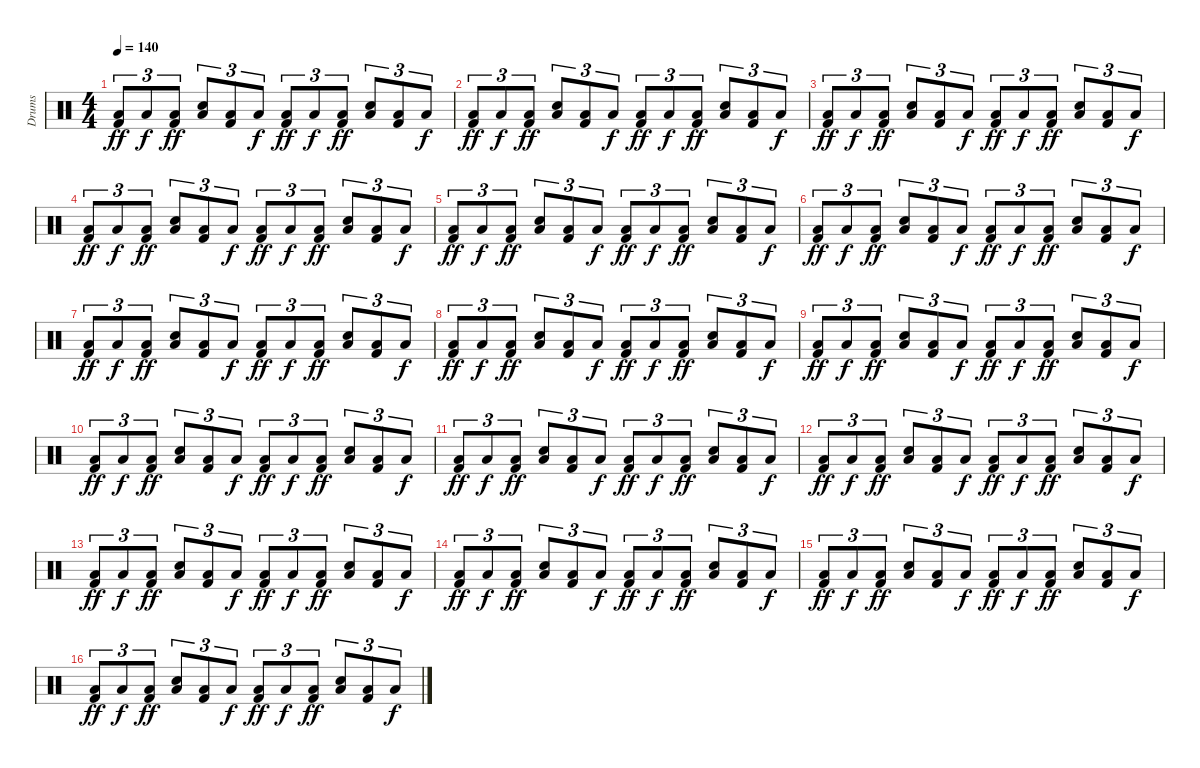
\track ("Drums" "Drums") {instrument percussion}
\staff {score}
\articulation defaults
\ts (4 4)
\tempo 140
\clef neutral
\ks c
("Kick (hit) 2" "Low Floor Tom (hit)").8{tu (3 2) dy ff} "Low Floor Tom (hit)".8{tu (3 2) dy f} ("Kick (hit) 2" "Low Floor Tom (hit)").8{tu (3 2) dy ff} ("Snare (hit) 2" "Low Floor Tom (hit)").8{tu (3 2)} ("Kick (hit) 2" "Low Floor Tom (hit)").8{tu (3 2)} "Low Floor Tom (hit)".8{tu (3 2) dy f} ("Kick (hit) 2" "Low Floor Tom (hit)").8{tu (3 2) dy ff} "Low Floor Tom (hit)".8{tu (3 2) dy f} ("Kick (hit) 2" "Low Floor Tom (hit)").8{tu (3 2) dy ff} ("Snare (hit) 2" "Low Floor Tom (hit)").8{tu (3 2)} ("Kick (hit) 2" "Low Floor Tom (hit)").8{tu (3 2)} "Low Floor Tom (hit)".8{tu (3 2) dy f} |
("Kick (hit) 2" "Low Floor Tom (hit)").8{tu (3 2) dy ff} "Low Floor Tom (hit)".8{tu (3 2) dy f} ("Kick (hit) 2" "Low Floor Tom (hit)").8{tu (3 2) dy ff} ("Snare (hit) 2" "Low Floor Tom (hit)").8{tu (3 2)} ("Kick (hit) 2" "Low Floor Tom (hit)").8{tu (3 2)} "Low Floor Tom (hit)".8{tu (3 2) dy f} ("Kick (hit) 2" "Low Floor Tom (hit)").8{tu (3 2) dy ff} "Low Floor Tom (hit)".8{tu (3 2) dy f} ("Kick (hit) 2" "Low Floor Tom (hit)").8{tu (3 2) dy ff} ("Snare (hit) 2" "Low Floor Tom (hit)").8{tu (3 2)} ("Kick (hit) 2" "Low Floor Tom (hit)").8{tu (3 2)} "Low Floor Tom (hit)".8{tu (3 2) dy f} |
("Kick (hit) 2" "Low Floor Tom (hit)").8{tu (3 2) dy ff} "Low Floor Tom (hit)".8{tu (3 2) dy f} ("Kick (hit) 2" "Low Floor Tom (hit)").8{tu (3 2) dy ff} ("Snare (hit) 2" "Low Floor Tom (hit)").8{tu (3 2)} ("Kick (hit) 2" "Low Floor Tom (hit)").8{tu (3 2)} "Low Floor Tom (hit)".8{tu (3 2) dy f} ("Kick (hit) 2" "Low Floor Tom (hit)").8{tu (3 2) dy ff} "Low Floor Tom (hit)".8{tu (3 2) dy f} ("Kick (hit) 2" "Low Floor Tom (hit)").8{tu (3 2) dy ff} ("Snare (hit) 2" "Low Floor Tom (hit)").8{tu (3 2)} ("Kick (hit) 2" "Low Floor Tom (hit)").8{tu (3 2)} "Low Floor Tom (hit)".8{tu (3 2) dy f} |
("Kick (hit) 2" "Low Floor Tom (hit)").8{tu (3 2) dy ff} "Low Floor Tom (hit)".8{tu (3 2) dy f} ("Kick (hit) 2" "Low Floor Tom (hit)").8{tu (3 2) dy ff} ("Snare (hit) 2" "Low Floor Tom (hit)").8{tu (3 2)} ("Kick (hit) 2" "Low Floor Tom (hit)").8{tu (3 2)} "Low Floor Tom (hit)".8{tu (3 2) dy f} ("Kick (hit) 2" "Low Floor Tom (hit)").8{tu (3 2) dy ff} "Low Floor Tom (hit)".8{tu (3 2) dy f} ("Kick (hit) 2" "Low Floor Tom (hit)").8{tu (3 2) dy ff} ("Snare (hit) 2" "Low Floor Tom (hit)").8{tu (3 2)} ("Kick (hit) 2" "Low Floor Tom (hit)").8{tu (3 2)} "Low Floor Tom (hit)".8{tu (3 2) dy f} |
("Kick (hit) 2" "Low Floor Tom (hit)").8{tu (3 2) dy ff} "Low Floor Tom (hit)".8{tu (3 2) dy f} ("Kick (hit) 2" "Low Floor Tom (hit)").8{tu (3 2) dy ff} ("Snare (hit) 2" "Low Floor Tom (hit)").8{tu (3 2)} ("Kick (hit) 2" "Low Floor Tom (hit)").8{tu (3 2)} "Low Floor Tom (hit)".8{tu (3 2) dy f} ("Kick (hit) 2" "Low Floor Tom (hit)").8{tu (3 2) dy ff} "Low Floor Tom (hit)".8{tu (3 2) dy f} ("Kick (hit) 2" "Low Floor Tom (hit)").8{tu (3 2) dy ff} ("Snare (hit) 2" "Low Floor Tom (hit)").8{tu (3 2)} ("Kick (hit) 2" "Low Floor Tom (hit)").8{tu (3 2)} "Low Floor Tom (hit)".8{tu (3 2) dy f} |
("Kick (hit) 2" "Low Floor Tom (hit)").8{tu (3 2) dy ff} "Low Floor Tom (hit)".8{tu (3 2) dy f} ("Kick (hit) 2" "Low Floor Tom (hit)").8{tu (3 2) dy ff} ("Snare (hit) 2" "Low Floor Tom (hit)").8{tu (3 2)} ("Kick (hit) 2" "Low Floor Tom (hit)").8{tu (3 2)} "Low Floor Tom (hit)".8{tu (3 2) dy f} ("Kick (hit) 2" "Low Floor Tom (hit)").8{tu (3 2) dy ff} "Low Floor Tom (hit)".8{tu (3 2) dy f} ("Kick (hit) 2" "Low Floor Tom (hit)").8{tu (3 2) dy ff} ("Snare (hit) 2" "Low Floor Tom (hit)").8{tu (3 2)} ("Kick (hit) 2" "Low Floor Tom (hit)").8{tu (3 2)} "Low Floor Tom (hit)".8{tu (3 2) dy f} |
("Kick (hit) 2" "Low Floor Tom (hit)").8{tu (3 2) dy ff} "Low Floor Tom (hit)".8{tu (3 2) dy f} ("Kick (hit) 2" "Low Floor Tom (hit)").8{tu (3 2) dy ff} ("Snare (hit) 2" "Low Floor Tom (hit)").8{tu (3 2)} ("Kick (hit) 2" "Low Floor Tom (hit)").8{tu (3 2)} "Low Floor Tom (hit)".8{tu (3 2) dy f} ("Kick (hit) 2" "Low Floor Tom (hit)").8{tu (3 2) dy ff} "Low Floor Tom (hit)".8{tu (3 2) dy f} ("Kick (hit) 2" "Low Floor Tom (hit)").8{tu (3 2) dy ff} ("Snare (hit) 2" "Low Floor Tom (hit)").8{tu (3 2)} ("Kick (hit) 2" "Low Floor Tom (hit)").8{tu (3 2)} "Low Floor Tom (hit)".8{tu (3 2) dy f} |
("Kick (hit) 2" "Low Floor Tom (hit)").8{tu (3 2) dy ff} "Low Floor Tom (hit)".8{tu (3 2) dy f} ("Kick (hit) 2" "Low Floor Tom (hit)").8{tu (3 2) dy ff} ("Snare (hit) 2" "Low Floor Tom (hit)").8{tu (3 2)} ("Kick (hit) 2" "Low Floor Tom (hit)").8{tu (3 2)} "Low Floor Tom (hit)".8{tu (3 2) dy f} ("Kick (hit) 2" "Low Floor Tom (hit)").8{tu (3 2) dy ff} "Low Floor Tom (hit)".8{tu (3 2) dy f} ("Kick (hit) 2" "Low Floor Tom (hit)").8{tu (3 2) dy ff} ("Snare (hit) 2" "Low Floor Tom (hit)").8{tu (3 2)} ("Kick (hit) 2" "Low Floor Tom (hit)").8{tu (3 2)} "Low Floor Tom (hit)".8{tu (3 2) dy f} |
("Kick (hit) 2" "Low Floor Tom (hit)").8{tu (3 2) dy ff} "Low Floor Tom (hit)".8{tu (3 2) dy f} ("Kick (hit) 2" "Low Floor Tom (hit)").8{tu (3 2) dy ff} ("Snare (hit) 2" "Low Floor Tom (hit)").8{tu (3 2)} ("Kick (hit) 2" "Low Floor Tom (hit)").8{tu (3 2)} "Low Floor Tom (hit)".8{tu (3 2) dy f} ("Kick (hit) 2" "Low Floor Tom (hit)").8{tu (3 2) dy ff} "Low Floor Tom (hit)".8{tu (3 2) dy f} ("Kick (hit) 2" "Low Floor Tom (hit)").8{tu (3 2) dy ff} ("Snare (hit) 2" "Low Floor Tom (hit)").8{tu (3 2)} ("Kick (hit) 2" "Low Floor Tom (hit)").8{tu (3 2)} "Low Floor Tom (hit)".8{tu (3 2) dy f} |
("Kick (hit) 2" "Low Floor Tom (hit)").8{tu (3 2) dy ff} "Low Floor Tom (hit)".8{tu (3 2) dy f} ("Kick (hit) 2" "Low Floor Tom (hit)").8{tu (3 2) dy ff} ("Snare (hit) 2" "Low Floor Tom (hit)").8{tu (3 2)} ("Kick (hit) 2" "Low Floor Tom (hit)").8{tu (3 2)} "Low Floor Tom (hit)".8{tu (3 2) dy f} ("Kick (hit) 2" "Low Floor Tom (hit)").8{tu (3 2) dy ff} "Low Floor Tom (hit)".8{tu (3 2) dy f} ("Kick (hit) 2" "Low Floor Tom (hit)").8{tu (3 2) dy ff} ("Snare (hit) 2" "Low Floor Tom (hit)").8{tu (3 2)} ("Kick (hit) 2" "Low Floor Tom (hit)").8{tu (3 2)} "Low Floor Tom (hit)".8{tu (3 2) dy f} |
("Kick (hit) 2" "Low Floor Tom (hit)").8{tu (3 2) dy ff} "Low Floor Tom (hit)".8{tu (3 2) dy f} ("Kick (hit) 2" "Low Floor Tom (hit)").8{tu (3 2) dy ff} ("Snare (hit) 2" "Low Floor Tom (hit)").8{tu (3 2)} ("Kick (hit) 2" "Low Floor Tom (hit)").8{tu (3 2)} "Low Floor Tom (hit)".8{tu (3 2) dy f} ("Kick (hit) 2" "Low Floor Tom (hit)").8{tu (3 2) dy ff} "Low Floor Tom (hit)".8{tu (3 2) dy f} ("Kick (hit) 2" "Low Floor Tom (hit)").8{tu (3 2) dy ff} ("Snare (hit) 2" "Low Floor Tom (hit)").8{tu (3 2)} ("Kick (hit) 2" "Low Floor Tom (hit)").8{tu (3 2)} "Low Floor Tom (hit)".8{tu (3 2) dy f} |
("Kick (hit) 2" "Low Floor Tom (hit)").8{tu (3 2) dy ff} "Low Floor Tom (hit)".8{tu (3 2) dy f} ("Kick (hit) 2" "Low Floor Tom (hit)").8{tu (3 2) dy ff} ("Snare (hit) 2" "Low Floor Tom (hit)").8{tu (3 2)} ("Kick (hit) 2" "Low Floor Tom (hit)").8{tu (3 2)} "Low Floor Tom (hit)".8{tu (3 2) dy f} ("Kick (hit) 2" "Low Floor Tom (hit)").8{tu (3 2) dy ff} "Low Floor Tom (hit)".8{tu (3 2) dy f} ("Kick (hit) 2" "Low Floor Tom (hit)").8{tu (3 2) dy ff} ("Snare (hit) 2" "Low Floor Tom (hit)").8{tu (3 2)} ("Kick (hit) 2" "Low Floor Tom (hit)").8{tu (3 2)} "Low Floor Tom (hit)".8{tu (3 2) dy f} |
("Kick (hit) 2" "Low Floor Tom (hit)").8{tu (3 2) dy ff} "Low Floor Tom (hit)".8{tu (3 2) dy f} ("Kick (hit) 2" "Low Floor Tom (hit)").8{tu (3 2) dy ff} ("Snare (hit) 2" "Low Floor Tom (hit)").8{tu (3 2)} ("Kick (hit) 2" "Low Floor Tom (hit)").8{tu (3 2)} "Low Floor Tom (hit)".8{tu (3 2) dy f} ("Kick (hit) 2" "Low Floor Tom (hit)").8{tu (3 2) dy ff} "Low Floor Tom (hit)".8{tu (3 2) dy f} ("Kick (hit) 2" "Low Floor Tom (hit)").8{tu (3 2) dy ff} ("Snare (hit) 2" "Low Floor Tom (hit)").8{tu (3 2)} ("Kick (hit) 2" "Low Floor Tom (hit)").8{tu (3 2)} "Low Floor Tom (hit)".8{tu (3 2) dy f} |
("Kick (hit) 2" "Low Floor Tom (hit)").8{tu (3 2) dy ff} "Low Floor Tom (hit)".8{tu (3 2) dy f} ("Kick (hit) 2" "Low Floor Tom (hit)").8{tu (3 2) dy ff} ("Snare (hit) 2" "Low Floor Tom (hit)").8{tu (3 2)} ("Kick (hit) 2" "Low Floor Tom (hit)").8{tu (3 2)} "Low Floor Tom (hit)".8{tu (3 2) dy f} ("Kick (hit) 2" "Low Floor Tom (hit)").8{tu (3 2) dy ff} "Low Floor Tom (hit)".8{tu (3 2) dy f} ("Kick (hit) 2" "Low Floor Tom (hit)").8{tu (3 2) dy ff} ("Snare (hit) 2" "Low Floor Tom (hit)").8{tu (3 2)} ("Kick (hit) 2" "Low Floor Tom (hit)").8{tu (3 2)} "Low Floor Tom (hit)".8{tu (3 2) dy f} |
("Kick (hit) 2" "Low Floor Tom (hit)").8{tu (3 2) dy ff} "Low Floor Tom (hit)".8{tu (3 2) dy f} ("Kick (hit) 2" "Low Floor Tom (hit)").8{tu (3 2) dy ff} ("Snare (hit) 2" "Low Floor Tom (hit)").8{tu (3 2)} ("Kick (hit) 2" "Low Floor Tom (hit)").8{tu (3 2)} "Low Floor Tom (hit)".8{tu (3 2) dy f} ("Kick (hit) 2" "Low Floor Tom (hit)").8{tu (3 2) dy ff} "Low Floor Tom (hit)".8{tu (3 2) dy f} ("Kick (hit) 2" "Low Floor Tom (hit)").8{tu (3 2) dy ff} ("Snare (hit) 2" "Low Floor Tom (hit)").8{tu (3 2)} ("Kick (hit) 2" "Low Floor Tom (hit)").8{tu (3 2)} "Low Floor Tom (hit)".8{tu (3 2) dy f} |
("Kick (hit) 2" "Low Floor Tom (hit)").8{tu (3 2) dy ff} "Low Floor Tom (hit)".8{tu (3 2) dy f} ("Kick (hit) 2" "Low Floor Tom (hit)").8{tu (3 2) dy ff} ("Snare (hit) 2" "Low Floor Tom (hit)").8{tu (3 2)} ("Kick (hit) 2" "Low Floor Tom (hit)").8{tu (3 2)} "Low Floor Tom (hit)".8{tu (3 2) dy f} ("Kick (hit) 2" "Low Floor Tom (hit)").8{tu (3 2) dy ff} "Low Floor Tom (hit)".8{tu (3 2) dy f} ("Kick (hit) 2" "Low Floor Tom (hit)").8{tu (3 2) dy ff} ("Snare (hit) 2" "Low Floor Tom (hit)").8{tu (3 2)} ("Kick (hit) 2" "Low Floor Tom (hit)").8{tu (3 2)} "Low Floor Tom (hit)".8{tu (3 2) dy f}
